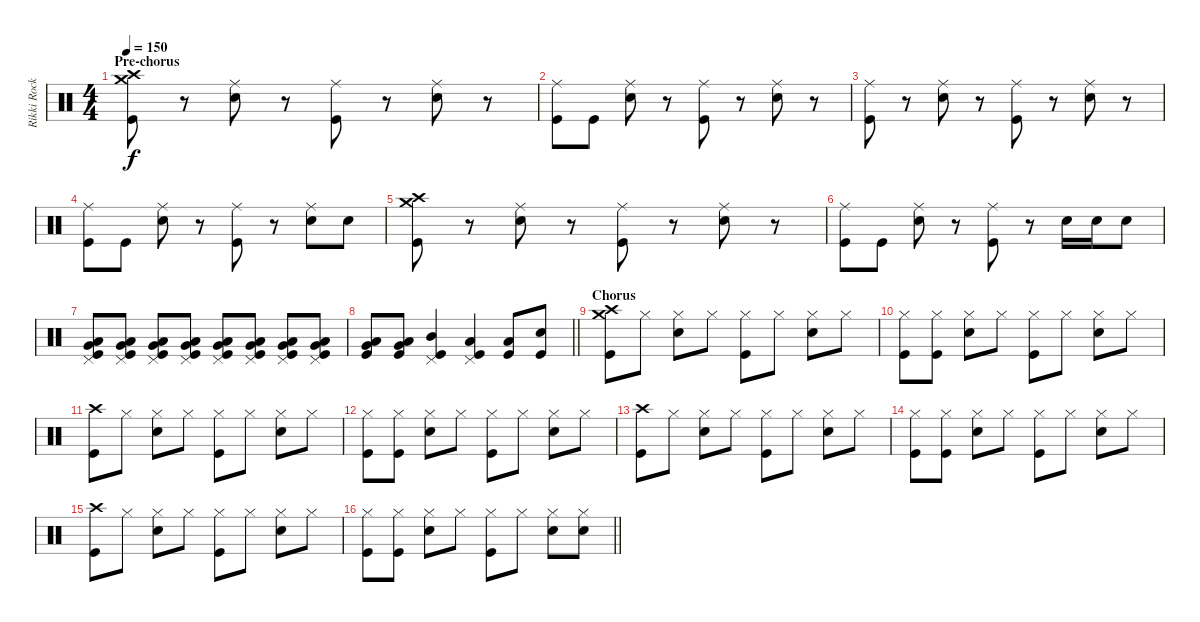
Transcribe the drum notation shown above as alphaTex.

\track ("Rikki Rocket" "Rikki Rock") {instrument percussion}
\staff {score}
\articulation defaults
\ts (4 4)
\section ("" "Pre-chorus")
\tempo 150
\clef neutral
\ks c
("Crash medium (hit)" "Crash high (hit)" "Kick (hit)").8{dy f} r.8 ("Ride (middle)" "Electric Snare (hit)").8 r.8 ("Ride (middle)" "Kick (hit)").8 r.8 ("Ride (middle)" "Electric Snare (hit)").8 r.8 |
("Ride (middle)" "Kick (hit)").8 "Kick (hit)".8 ("Ride (middle)" "Electric Snare (hit)").8 r.8 ("Ride (middle)" "Kick (hit)").8 r.8 ("Ride (middle)" "Electric Snare (hit)").8 r.8 |
("Ride (middle)" "Kick (hit)").8 r.8 ("Ride (middle)" "Electric Snare (hit)").8 r.8 ("Ride (middle)" "Kick (hit)").8 r.8 ("Ride (middle)" "Electric Snare (hit)").8 r.8 |
("Ride (middle)" "Kick (hit)").8 "Kick (hit)".8 ("Ride (middle)" "Electric Snare (hit)").8 r.8 ("Ride (middle)" "Kick (hit)").8 r.8 ("Ride (middle)" "Electric Snare (hit)").8 "Electric Snare (hit)".8 |
("Crash medium (hit)" "Crash high (hit)" "Kick (hit)").8 r.8 ("Ride (middle)" "Electric Snare (hit)").8 r.8 ("Ride (middle)" "Kick (hit)").8 r.8 ("Ride (middle)" "Electric Snare (hit)").8 r.8 |
("Ride (middle)" "Kick (hit)").8 "Kick (hit)".8 ("Ride (middle)" "Electric Snare (hit)").8 r.8 ("Ride (middle)" "Kick (hit)").8 r.8 "Electric Snare (hit)".16 "Electric Snare (hit)".16 "Electric Snare (hit)".8 |
("Pedal Hi-Hat (hit)" "Low Tom (hit)" "Very Low Tom (hit)" "Kick (hit)").8 ("Pedal Hi-Hat (hit)" "Low Tom (hit)" "Very Low Tom (hit)" "Kick (hit)").8 ("Pedal Hi-Hat (hit)" "Low Tom (hit)" "Very Low Tom (hit)" "Kick (hit)").8 ("Pedal Hi-Hat (hit)" "Low Tom (hit)" "Very Low Tom (hit)" "Kick (hit)").8 ("Pedal Hi-Hat (hit)" "Low Tom (hit)" "Very Low Tom (hit)" "Kick (hit)").8 ("Pedal Hi-Hat (hit)" "Low Tom (hit)" "Very Low Tom (hit)" "Kick (hit)").8 ("Pedal Hi-Hat (hit)" "Low Tom (hit)" "Very Low Tom (hit)" "Kick (hit)").8 ("Pedal Hi-Hat (hit)" "Low Tom (hit)" "Very Low Tom (hit)" "Kick (hit)").8 |
\barLineRight lightlight
("Low Tom (hit)" "Very Low Tom (hit)" "Kick (hit)").8 ("Low Tom (hit)" "Very Low Tom (hit)" "Kick (hit)").8 ("Pedal Hi-Hat (hit)" "Mid Tom (hit)" "Kick (hit)").4 ("Pedal Hi-Hat (hit)" "Low Tom (hit)" "Kick (hit)").4 ("Low Tom (hit)" "Kick (hit)").8 ("Electric Snare (hit)" "Kick (hit)").8 |
\section ("" "Chorus")
("Crash medium (hit)" "Crash high (hit)" "Kick (hit)").8 "Hi-Hat (closed)".8 ("Hi-Hat (closed)" "Electric Snare (hit)").8 "Hi-Hat (closed)".8 ("Hi-Hat (closed)" "Kick (hit)").8 "Hi-Hat (closed)".8 ("Hi-Hat (closed)" "Electric Snare (hit)").8 "Hi-Hat (closed)".8 |
("Hi-Hat (closed)" "Kick (hit)").8 ("Hi-Hat (closed)" "Kick (hit)").8 ("Hi-Hat (closed)" "Electric Snare (hit)").8 "Hi-Hat (closed)".8 ("Hi-Hat (closed)" "Kick (hit)").8 "Hi-Hat (closed)".8 ("Hi-Hat (closed)" "Electric Snare (hit)").8 "Hi-Hat (closed)".8 |
("Crash high (hit)" "Kick (hit)").8 "Hi-Hat (closed)".8 ("Hi-Hat (closed)" "Electric Snare (hit)").8 "Hi-Hat (closed)".8 ("Hi-Hat (closed)" "Kick (hit)").8 "Hi-Hat (closed)".8 ("Hi-Hat (closed)" "Electric Snare (hit)").8 "Hi-Hat (closed)".8 |
("Hi-Hat (closed)" "Kick (hit)").8 ("Hi-Hat (closed)" "Kick (hit)").8 ("Hi-Hat (closed)" "Electric Snare (hit)").8 "Hi-Hat (closed)".8 ("Hi-Hat (closed)" "Kick (hit)").8 "Hi-Hat (closed)".8 ("Hi-Hat (closed)" "Electric Snare (hit)").8 "Hi-Hat (closed)".8 |
("Crash high (hit)" "Kick (hit)").8 "Hi-Hat (closed)".8 ("Hi-Hat (closed)" "Electric Snare (hit)").8 "Hi-Hat (closed)".8 ("Hi-Hat (closed)" "Kick (hit)").8 "Hi-Hat (closed)".8 ("Hi-Hat (closed)" "Electric Snare (hit)").8 "Hi-Hat (closed)".8 |
("Hi-Hat (closed)" "Kick (hit)").8 ("Hi-Hat (closed)" "Kick (hit)").8 ("Hi-Hat (closed)" "Electric Snare (hit)").8 "Hi-Hat (closed)".8 ("Hi-Hat (closed)" "Kick (hit)").8 "Hi-Hat (closed)".8 ("Hi-Hat (closed)" "Electric Snare (hit)").8 "Hi-Hat (closed)".8 |
("Crash high (hit)" "Kick (hit)").8 "Hi-Hat (closed)".8 ("Hi-Hat (closed)" "Electric Snare (hit)").8 "Hi-Hat (closed)".8 ("Hi-Hat (closed)" "Kick (hit)").8 "Hi-Hat (closed)".8 ("Hi-Hat (closed)" "Electric Snare (hit)").8 "Hi-Hat (closed)".8 |
\barLineRight lightlight
("Hi-Hat (closed)" "Kick (hit)").8 ("Hi-Hat (closed)" "Kick (hit)").8 ("Hi-Hat (closed)" "Electric Snare (hit)").8 "Hi-Hat (closed)".8 ("Hi-Hat (closed)" "Kick (hit)").8 "Hi-Hat (closed)".8 ("Hi-Hat (closed)" "Electric Snare (hit)").8 ("Hi-Hat (closed)" "Electric Snare (hit)").8
